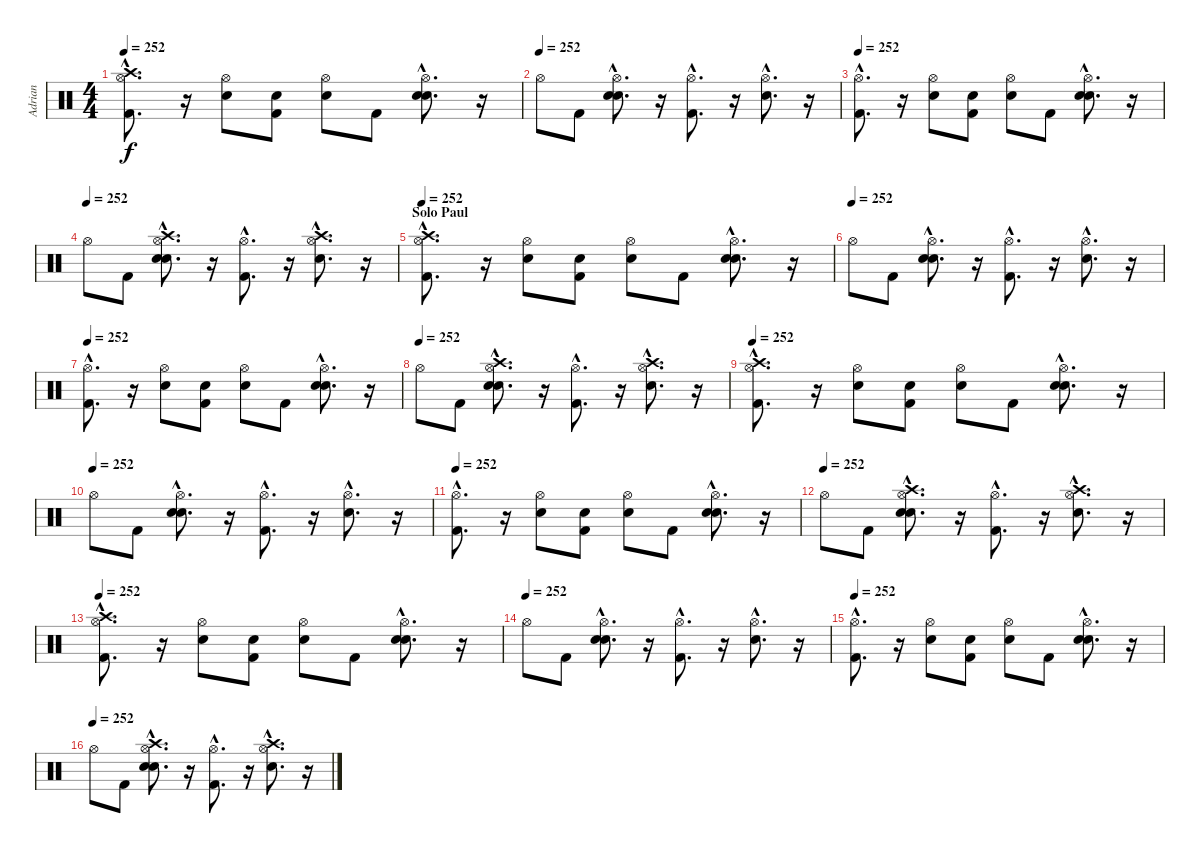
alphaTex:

\track ("Adrian" "Adrian") {instrument percussion}
\staff {score}
\articulation defaults
\ts (4 4)
\tempo 252
\clef neutral
\ks c
("Kick (hit) 2"{hac} "Hi-Hat (open)"{hac} "Crash high (hit)"{hac}).8{d dy f} r.16 ("Snare (hit) 2" "Hi-Hat (open)").8 ("Snare (hit)" "Kick (hit) 2").8 ("Snare (hit)" "Hi-Hat (open)").8 "Kick (hit) 2".8 ("Snare (hit)"{hac} "Snare (hit) 2"{hac} "Hi-Hat (open)"{hac}).8{d} r.16 |
\tempo (252)
"Hi-Hat (open)".8 "Kick (hit) 2".8 ("Snare (hit)"{hac} "Snare (hit) 2"{hac} "Hi-Hat (open)"{hac}).8{d} r.16 ("Kick (hit) 2"{hac} "Hi-Hat (open)"{hac}).8{d} r.16 ("Snare (hit) 2"{hac} "Hi-Hat (open)"{hac}).8{d} r.16 |
\tempo 252
("Kick (hit) 2"{hac} "Hi-Hat (open)"{hac}).8{d} r.16 ("Snare (hit) 2" "Hi-Hat (open)").8 ("Snare (hit)" "Kick (hit) 2").8 ("Snare (hit)" "Hi-Hat (open)").8 "Kick (hit) 2".8 ("Snare (hit)"{hac} "Snare (hit) 2"{hac} "Hi-Hat (open)"{hac}).8{d} r.16 |
\tempo (252)
"Hi-Hat (open)".8 "Kick (hit) 2".8 ("Snare (hit)"{hac} "Snare (hit) 2"{hac} "Hi-Hat (open)"{hac} "Crash high (hit)"{hac}).8{d} r.16 ("Kick (hit) 2"{hac} "Hi-Hat (open)"{hac}).8{d} r.16 ("Snare (hit) 2"{hac} "Hi-Hat (open)"{hac} "Crash high (hit)"{hac}).8{d} r.16 |
\section ("" "Solo Paul")
\tempo 252
("Kick (hit) 2"{hac} "Hi-Hat (open)"{hac} "Crash high (hit)"{hac}).8{d} r.16 ("Snare (hit) 2" "Hi-Hat (open)").8 ("Snare (hit)" "Kick (hit) 2").8 ("Snare (hit)" "Hi-Hat (open)").8 "Kick (hit) 2".8 ("Snare (hit)"{hac} "Snare (hit) 2"{hac} "Hi-Hat (open)"{hac}).8{d} r.16 |
\tempo (252)
"Hi-Hat (open)".8 "Kick (hit) 2".8 ("Snare (hit)"{hac} "Snare (hit) 2"{hac} "Hi-Hat (open)"{hac}).8{d} r.16 ("Kick (hit) 2"{hac} "Hi-Hat (open)"{hac}).8{d} r.16 ("Snare (hit) 2"{hac} "Hi-Hat (open)"{hac}).8{d} r.16 |
\tempo 252
("Kick (hit) 2"{hac} "Hi-Hat (open)"{hac}).8{d} r.16 ("Snare (hit) 2" "Hi-Hat (open)").8 ("Snare (hit)" "Kick (hit) 2").8 ("Snare (hit)" "Hi-Hat (open)").8 "Kick (hit) 2".8 ("Snare (hit)"{hac} "Snare (hit) 2"{hac} "Hi-Hat (open)"{hac}).8{d} r.16 |
\tempo (252)
"Hi-Hat (open)".8 "Kick (hit) 2".8 ("Snare (hit)"{hac} "Snare (hit) 2"{hac} "Hi-Hat (open)"{hac} "Crash high (hit)"{hac}).8{d} r.16 ("Kick (hit) 2"{hac} "Hi-Hat (open)"{hac}).8{d} r.16 ("Snare (hit) 2"{hac} "Hi-Hat (open)"{hac} "Crash high (hit)"{hac}).8{d} r.16 |
\tempo 252
("Kick (hit) 2"{hac} "Hi-Hat (open)"{hac} "Crash high (hit)"{hac}).8{d} r.16 ("Snare (hit) 2" "Hi-Hat (open)").8 ("Snare (hit)" "Kick (hit) 2").8 ("Snare (hit)" "Hi-Hat (open)").8 "Kick (hit) 2".8 ("Snare (hit)"{hac} "Snare (hit) 2"{hac} "Hi-Hat (open)"{hac}).8{d} r.16 |
\tempo (252)
"Hi-Hat (open)".8 "Kick (hit) 2".8 ("Snare (hit)"{hac} "Snare (hit) 2"{hac} "Hi-Hat (open)"{hac}).8{d} r.16 ("Kick (hit) 2"{hac} "Hi-Hat (open)"{hac}).8{d} r.16 ("Snare (hit) 2"{hac} "Hi-Hat (open)"{hac}).8{d} r.16 |
\tempo 252
("Kick (hit) 2"{hac} "Hi-Hat (open)"{hac}).8{d} r.16 ("Snare (hit) 2" "Hi-Hat (open)").8 ("Snare (hit)" "Kick (hit) 2").8 ("Snare (hit)" "Hi-Hat (open)").8 "Kick (hit) 2".8 ("Snare (hit)"{hac} "Snare (hit) 2"{hac} "Hi-Hat (open)"{hac}).8{d} r.16 |
\tempo (252)
"Hi-Hat (open)".8 "Kick (hit) 2".8 ("Snare (hit)"{hac} "Snare (hit) 2"{hac} "Hi-Hat (open)"{hac} "Crash high (hit)"{hac}).8{d} r.16 ("Kick (hit) 2"{hac} "Hi-Hat (open)"{hac}).8{d} r.16 ("Snare (hit) 2"{hac} "Hi-Hat (open)"{hac} "Crash high (hit)"{hac}).8{d} r.16 |
\tempo 252
("Kick (hit) 2"{hac} "Hi-Hat (open)"{hac} "Crash high (hit)"{hac}).8{d} r.16 ("Snare (hit) 2" "Hi-Hat (open)").8 ("Snare (hit)" "Kick (hit) 2").8 ("Snare (hit)" "Hi-Hat (open)").8 "Kick (hit) 2".8 ("Snare (hit)"{hac} "Snare (hit) 2"{hac} "Hi-Hat (open)"{hac}).8{d} r.16 |
\tempo (252)
"Hi-Hat (open)".8 "Kick (hit) 2".8 ("Snare (hit)"{hac} "Snare (hit) 2"{hac} "Hi-Hat (open)"{hac}).8{d} r.16 ("Kick (hit) 2"{hac} "Hi-Hat (open)"{hac}).8{d} r.16 ("Snare (hit) 2"{hac} "Hi-Hat (open)"{hac}).8{d} r.16 |
\tempo 252
("Kick (hit) 2"{hac} "Hi-Hat (open)"{hac}).8{d} r.16 ("Snare (hit) 2" "Hi-Hat (open)").8 ("Snare (hit)" "Kick (hit) 2").8 ("Snare (hit)" "Hi-Hat (open)").8 "Kick (hit) 2".8 ("Snare (hit)"{hac} "Snare (hit) 2"{hac} "Hi-Hat (open)"{hac}).8{d} r.16 |
\tempo (252)
"Hi-Hat (open)".8 "Kick (hit) 2".8 ("Snare (hit)"{hac} "Snare (hit) 2"{hac} "Hi-Hat (open)"{hac} "Crash high (hit)"{hac}).8{d} r.16 ("Kick (hit) 2"{hac} "Hi-Hat (open)"{hac}).8{d} r.16 ("Snare (hit) 2"{hac} "Hi-Hat (open)"{hac} "Crash high (hit)"{hac}).8{d} r.16
